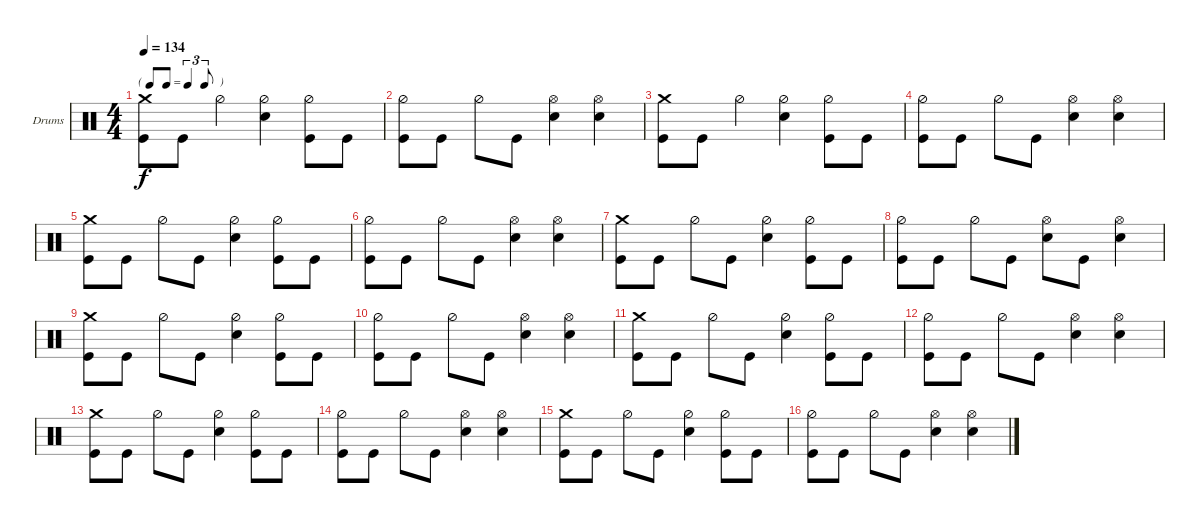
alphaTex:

\defaultSystemsLayout 4
\bracketExtendMode groupsimilarinstruments
\firstSystemTrackNameOrientation horizontal
\otherSystemsTrackNameOrientation horizontal
\track ("Drumkit" "Drums") {instrument percussion}
\staff {score}
\articulation defaults
\ts (4 4)
\tf triplet8th
\tempo 134
\clef neutral
\ks c
("Kick (hit)" "Crash medium (hit)").8{dy f} "Kick (hit)".8 "Hi-Hat (half)".4 ("Snare (hit) 2" "Hi-Hat (half)").4 ("Kick (hit)" "Hi-Hat (half)").8 "Kick (hit)".8 |
("Kick (hit)" "Hi-Hat (half)").8 "Kick (hit)".8 "Hi-Hat (half)".8 "Kick (hit)".8 ("Snare (hit) 2" "Hi-Hat (open)").4 ("Snare (hit) 2" "Hi-Hat (open)").4 |
("Kick (hit)" "Crash medium (hit)").8 "Kick (hit)".8 "Hi-Hat (half)".4 ("Snare (hit) 2" "Hi-Hat (half)").4 ("Kick (hit)" "Hi-Hat (half)").8 "Kick (hit)".8 |
("Kick (hit)" "Hi-Hat (half)").8 "Kick (hit)".8 "Hi-Hat (half)".8 "Kick (hit)".8 ("Snare (hit) 2" "Hi-Hat (open)").4 ("Snare (hit) 2" "Hi-Hat (open)").4 |
("Kick (hit)" "Crash medium (hit)").8 "Kick (hit)".8 "Hi-Hat (half)".8 "Kick (hit)".8 ("Snare (hit) 2" "Hi-Hat (half)").4 ("Kick (hit)" "Hi-Hat (half)").8 "Kick (hit)".8 |
("Kick (hit)" "Hi-Hat (half)").8 "Kick (hit)".8 "Hi-Hat (half)".8 "Kick (hit)".8 ("Snare (hit) 2" "Hi-Hat (open)").4 ("Snare (hit) 2" "Hi-Hat (open)").4 |
("Kick (hit)" "Crash medium (hit)").8 "Kick (hit)".8 "Hi-Hat (half)".8 "Kick (hit)".8 ("Snare (hit) 2" "Hi-Hat (half)").4 ("Kick (hit)" "Hi-Hat (half)").8 "Kick (hit)".8 |
("Kick (hit)" "Hi-Hat (half)").8 "Kick (hit)".8 "Hi-Hat (half)".8 "Kick (hit)".8 ("Snare (hit) 2" "Hi-Hat (open)").8 "Kick (hit)".8 ("Snare (hit) 2" "Hi-Hat (open)").4 |
("Kick (hit)" "Crash medium (hit)").8 "Kick (hit)".8 "Hi-Hat (half)".8 "Kick (hit)".8 ("Snare (hit) 2" "Hi-Hat (half)").4 ("Kick (hit)" "Hi-Hat (half)").8 "Kick (hit)".8 |
("Kick (hit)" "Hi-Hat (half)").8 "Kick (hit)".8 "Hi-Hat (half)".8 "Kick (hit)".8 ("Snare (hit) 2" "Hi-Hat (open)").4 ("Snare (hit) 2" "Hi-Hat (open)").4 |
("Kick (hit)" "Crash medium (hit)").8 "Kick (hit)".8 "Hi-Hat (half)".8 "Kick (hit)".8 ("Snare (hit) 2" "Hi-Hat (half)").4 ("Kick (hit)" "Hi-Hat (half)").8 "Kick (hit)".8 |
("Kick (hit)" "Hi-Hat (half)").8 "Kick (hit)".8 "Hi-Hat (half)".8 "Kick (hit)".8 ("Snare (hit) 2" "Hi-Hat (open)").4 ("Snare (hit) 2" "Hi-Hat (open)").4 |
("Kick (hit)" "Crash medium (hit)").8 "Kick (hit)".8 "Hi-Hat (half)".8 "Kick (hit)".8 ("Snare (hit) 2" "Hi-Hat (half)").4 ("Kick (hit)" "Hi-Hat (half)").8 "Kick (hit)".8 |
("Kick (hit)" "Hi-Hat (half)").8 "Kick (hit)".8 "Hi-Hat (half)".8 "Kick (hit)".8 ("Snare (hit) 2" "Hi-Hat (open)").4 ("Snare (hit) 2" "Hi-Hat (open)").4 |
("Kick (hit)" "Crash medium (hit)").8 "Kick (hit)".8 "Hi-Hat (half)".8 "Kick (hit)".8 ("Snare (hit) 2" "Hi-Hat (half)").4 ("Kick (hit)" "Hi-Hat (half)").8 "Kick (hit)".8 |
("Kick (hit)" "Hi-Hat (half)").8 "Kick (hit)".8 "Hi-Hat (half)".8 "Kick (hit)".8 ("Snare (hit) 2" "Hi-Hat (open)").4 ("Snare (hit) 2" "Hi-Hat (open)").4
